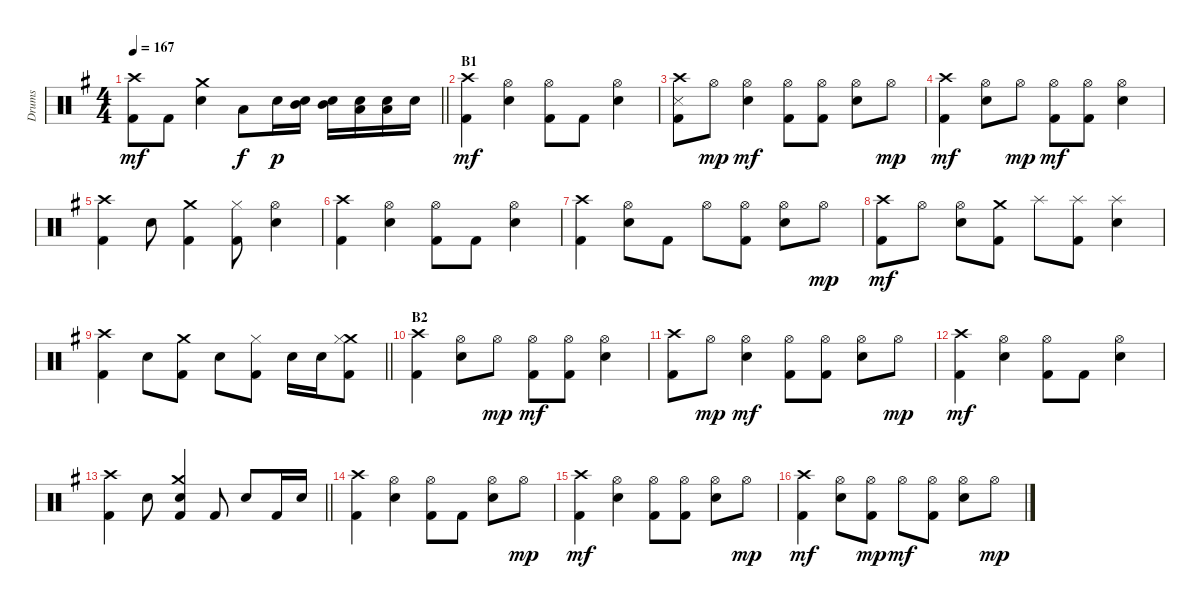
\track ("Drums" "Drums") {instrument percussion}
\staff {score}
\articulation defaults
\ts (4 4)
\tempo 167
\clef neutral
\barLineRight lightlight
\ks g
("Crash high (hit)" "Kick (hit) 2").8{dy mf} "Kick (hit) 2".8 ("Crash medium (hit)" "Electric Snare (hit)").4 "Low Tom (hit)".8{dy f} "Electric Snare (hit)".16{dy p} ("Mid Tom (hit)" "Electric Snare (hit)").16 ("Mid Tom (hit)" "Electric Snare (hit)").16 ("Low Tom (hit)" "Electric Snare (hit)").16 ("Low Floor Tom (hit)" "Electric Snare (hit)").16 "Electric Snare (hit)".16 |
\section ("" "B1")
("Crash high (hit)" "Kick (hit) 2").4{dy mf} ("Hi-Hat (open)" "Electric Snare (hit)").4 ("Hi-Hat (open)" "Kick (hit) 2").8 "Kick (hit) 2".8 ("Hi-Hat (open)" "Electric Snare (hit)").4 |
("Crash high (hit)" "Snare (side stick) 3" "Kick (hit) 2").8 "Hi-Hat (open)".8{dy mp} ("Hi-Hat (open)" "Electric Snare (hit)").4{dy mf} ("Hi-Hat (open)" "Kick (hit) 2").8 ("Hi-Hat (open)" "Kick (hit) 2").8 ("Hi-Hat (open)" "Electric Snare (hit)").8 "Hi-Hat (open)".8{dy mp} |
("Crash high (hit)" "Kick (hit) 2").4{dy mf} ("Hi-Hat (open)" "Electric Snare (hit)").8 "Hi-Hat (open)".8{dy mp} ("Hi-Hat (open)" "Kick (hit) 2").8{dy mf} ("Hi-Hat (open)" "Kick (hit) 2").8 ("Hi-Hat (open)" "Electric Snare (hit)").4 |
("Crash high (hit)" "Kick (hit) 2").4 "Electric Snare (hit)".8 ("Crash medium (hit)" "Kick (hit) 2").4 ("Hi-Hat (closed)" "Kick (hit) 2").8 ("Hi-Hat (open)" "Electric Snare (hit)").4 |
("Crash high (hit)" "Kick (hit) 2").4 ("Hi-Hat (open)" "Electric Snare (hit)").4 ("Hi-Hat (open)" "Kick (hit) 2").8 "Kick (hit) 2".8 ("Hi-Hat (open)" "Electric Snare (hit)").4 |
("Crash high (hit)" "Kick (hit) 2").4 ("Hi-Hat (open)" "Electric Snare (hit)").8 "Kick (hit) 2".8 "Hi-Hat (open)".8 ("Hi-Hat (open)" "Kick (hit) 2").8 ("Hi-Hat (open)" "Electric Snare (hit)").8 "Hi-Hat (open)".8{dy mp} |
("Crash high (hit)" "Kick (hit) 2").8{dy mf} "Hi-Hat (open)".8 ("Hi-Hat (open)" "Electric Snare (hit)").8 ("Crash medium (hit)" "Kick (hit) 2").8 "Splash (hit)".8 ("Splash (hit)" "Kick (hit) 2").8 ("Splash (hit)" "Electric Snare (hit)").4 |
\barLineRight lightlight
("Crash high (hit)" "Kick (hit) 2").4 "Electric Snare (hit)".8 ("Crash medium (hit)" "Kick (hit) 2").8 "Electric Snare (hit)".8 ("Hi-Hat (closed)" "Kick (hit) 2").8 "Electric Snare (hit)".16 "Electric Snare (hit)".16 ("Crash medium (hit)" "Hi-Hat (closed)" "Kick (hit) 2").8 |
\section ("" "B2")
("Crash high (hit)" "Kick (hit) 2").4 ("Hi-Hat (open)" "Electric Snare (hit)").8 "Hi-Hat (open)".8{dy mp} ("Hi-Hat (open)" "Kick (hit) 2").8{dy mf} ("Hi-Hat (open)" "Kick (hit) 2").8 ("Hi-Hat (open)" "Electric Snare (hit)").4 |
("Crash high (hit)" "Kick (hit) 2").8 "Hi-Hat (open)".8{dy mp} ("Hi-Hat (open)" "Electric Snare (hit)").4{dy mf} ("Hi-Hat (open)" "Kick (hit) 2").8 ("Hi-Hat (open)" "Kick (hit) 2").8 ("Hi-Hat (open)" "Electric Snare (hit)").8 "Hi-Hat (open)".8{dy mp} |
("Crash high (hit)" "Kick (hit) 2").4{dy mf} ("Hi-Hat (open)" "Electric Snare (hit)").4 ("Hi-Hat (open)" "Kick (hit) 2").8 "Kick (hit) 2".8 ("Hi-Hat (open)" "Electric Snare (hit)").4 |
\barLineRight lightlight
("Crash high (hit)" "Kick (hit) 2").4 "Electric Snare (hit)".8 ("Crash medium (hit)" "Electric Snare (hit)" "Kick (hit) 2").4 "Kick (hit) 2".8 "Electric Snare (hit)".8 "Kick (hit) 2".16 "Electric Snare (hit)".16 |
("Crash high (hit)" "Kick (hit) 2").4 ("Hi-Hat (open)" "Electric Snare (hit)").4 ("Hi-Hat (open)" "Kick (hit) 2").8 "Kick (hit) 2".8 ("Hi-Hat (open)" "Electric Snare (hit)").8 "Hi-Hat (open)".8{dy mp} |
("Crash high (hit)" "Kick (hit) 2").4{dy mf} ("Hi-Hat (open)" "Electric Snare (hit)").4 ("Hi-Hat (open)" "Kick (hit) 2").8 ("Hi-Hat (open)" "Kick (hit) 2").8 ("Hi-Hat (open)" "Electric Snare (hit)").8 "Hi-Hat (open)".8{dy mp} |
("Crash high (hit)" "Kick (hit) 2").4{dy mf} ("Hi-Hat (open)" "Electric Snare (hit)").8 ("Hi-Hat (open)" "Kick (hit) 2").8{dy mp} "Hi-Hat (open)".8{dy mf} ("Hi-Hat (open)" "Kick (hit) 2").8 ("Hi-Hat (open)" "Electric Snare (hit)").8 "Hi-Hat (open)".8{dy mp}
